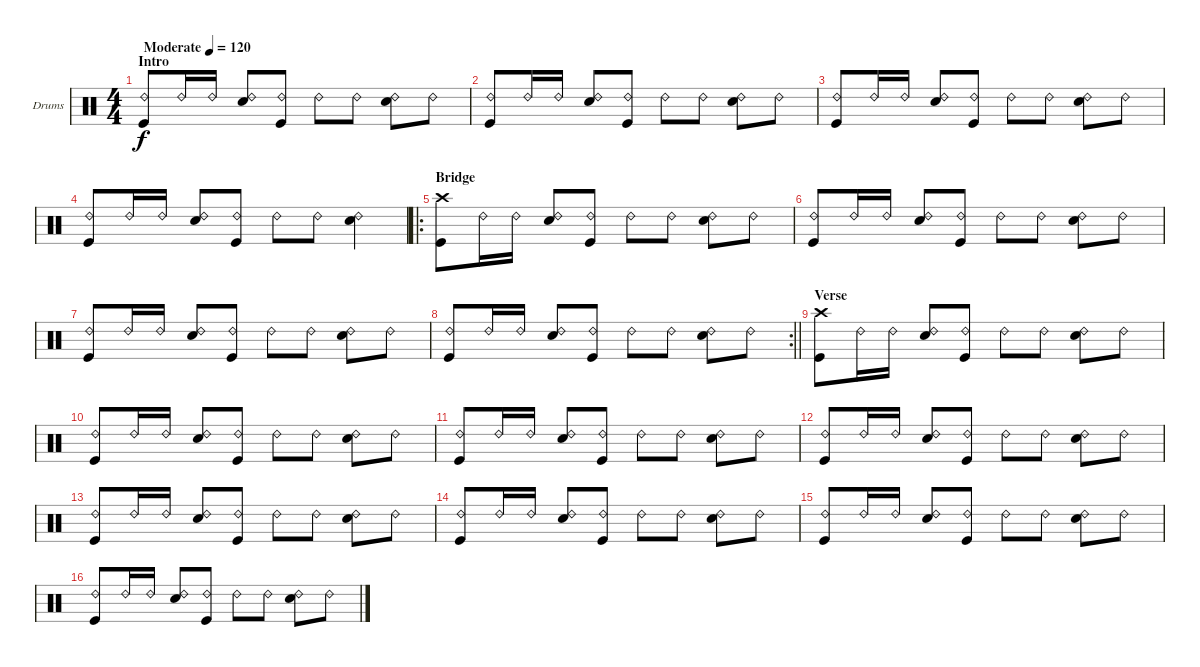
\bracketExtendMode groupsimilarinstruments
\firstSystemTrackNameOrientation horizontal
\otherSystemsTrackNameOrientation horizontal
\track ("Fabrizio" "Drums") {instrument percussion}
\staff {score}
\articulation defaults
\ts (4 4)
\beaming (8 2 2 2 2)
\section ("" "Intro")
\tempo (120 "Moderate")
\clef neutral
\ks c
("Ride (bell) 2" "Kick (hit)").8{dy f} "Ride (bell) 2".16 "Ride (bell) 2".16 ("Ride (bell) 2" "Snare (hit) 2").8 ("Ride (bell) 2" "Kick (hit)").8 "Ride (bell) 2".8 "Ride (bell) 2".8 ("Ride (bell) 2" "Snare (hit) 2").8 "Ride (bell) 2".8 |
("Ride (bell) 2" "Kick (hit)").8 "Ride (bell) 2".16 "Ride (bell) 2".16 ("Ride (bell) 2" "Snare (hit) 2").8 ("Ride (bell) 2" "Kick (hit)").8 "Ride (bell) 2".8 "Ride (bell) 2".8 ("Ride (bell) 2" "Snare (hit) 2").8 "Ride (bell) 2".8 |
("Ride (bell) 2" "Kick (hit)").8 "Ride (bell) 2".16 "Ride (bell) 2".16 ("Ride (bell) 2" "Snare (hit) 2").8 ("Ride (bell) 2" "Kick (hit)").8 "Ride (bell) 2".8 "Ride (bell) 2".8 ("Ride (bell) 2" "Snare (hit) 2").8 "Ride (bell) 2".8 |
("Ride (bell) 2" "Kick (hit)").8 "Ride (bell) 2".16 "Ride (bell) 2".16 ("Ride (bell) 2" "Snare (hit) 2").8 ("Ride (bell) 2" "Kick (hit)").8 "Ride (bell) 2".8 "Ride (bell) 2".8 ("Ride (bell) 2" "Snare (hit) 2").4 |
\ro
\section ("" "Bridge")
("Kick (hit)" "Crash high (hit)").8 "Ride (bell) 2".16 "Ride (bell) 2".16 ("Ride (bell) 2" "Snare (hit) 2").8 ("Ride (bell) 2" "Kick (hit)").8 "Ride (bell) 2".8 "Ride (bell) 2".8 ("Ride (bell) 2" "Snare (hit) 2").8 "Ride (bell) 2".8 |
("Ride (bell) 2" "Kick (hit)").8 "Ride (bell) 2".16 "Ride (bell) 2".16 ("Ride (bell) 2" "Snare (hit) 2").8 ("Ride (bell) 2" "Kick (hit)").8 "Ride (bell) 2".8 "Ride (bell) 2".8 ("Ride (bell) 2" "Snare (hit) 2").8 "Ride (bell) 2".8 |
("Ride (bell) 2" "Kick (hit)").8 "Ride (bell) 2".16 "Ride (bell) 2".16 ("Ride (bell) 2" "Snare (hit) 2").8 ("Ride (bell) 2" "Kick (hit)").8 "Ride (bell) 2".8 "Ride (bell) 2".8 ("Ride (bell) 2" "Snare (hit) 2").8 "Ride (bell) 2".8 |
\rc 2
\barLineRight lightlight
("Ride (bell) 2" "Kick (hit)").8 "Ride (bell) 2".16 "Ride (bell) 2".16 ("Ride (bell) 2" "Snare (hit) 2").8 ("Ride (bell) 2" "Kick (hit)").8 "Ride (bell) 2".8 "Ride (bell) 2".8 ("Ride (bell) 2" "Snare (hit) 2").8 "Ride (bell) 2".8 |
\section ("" "Verse")
("Kick (hit)" "Crash high (hit)").8 "Ride (bell) 2".16 "Ride (bell) 2".16 ("Ride (bell) 2" "Snare (hit) 2").8 ("Ride (bell) 2" "Kick (hit)").8 "Ride (bell) 2".8 "Ride (bell) 2".8 ("Ride (bell) 2" "Snare (hit) 2").8 "Ride (bell) 2".8 |
("Ride (bell) 2" "Kick (hit)").8 "Ride (bell) 2".16 "Ride (bell) 2".16 ("Ride (bell) 2" "Snare (hit) 2").8 ("Ride (bell) 2" "Kick (hit)").8 "Ride (bell) 2".8 "Ride (bell) 2".8 ("Ride (bell) 2" "Snare (hit) 2").8 "Ride (bell) 2".8 |
("Ride (bell) 2" "Kick (hit)").8 "Ride (bell) 2".16 "Ride (bell) 2".16 ("Ride (bell) 2" "Snare (hit) 2").8 ("Ride (bell) 2" "Kick (hit)").8 "Ride (bell) 2".8 "Ride (bell) 2".8 ("Ride (bell) 2" "Snare (hit) 2").8 "Ride (bell) 2".8 |
("Ride (bell) 2" "Kick (hit)").8 "Ride (bell) 2".16 "Ride (bell) 2".16 ("Ride (bell) 2" "Snare (hit) 2").8 ("Ride (bell) 2" "Kick (hit)").8 "Ride (bell) 2".8 "Ride (bell) 2".8 ("Ride (bell) 2" "Snare (hit) 2").8 "Ride (bell) 2".8 |
("Ride (bell) 2" "Kick (hit)").8 "Ride (bell) 2".16 "Ride (bell) 2".16 ("Ride (bell) 2" "Snare (hit) 2").8 ("Ride (bell) 2" "Kick (hit)").8 "Ride (bell) 2".8 "Ride (bell) 2".8 ("Ride (bell) 2" "Snare (hit) 2").8 "Ride (bell) 2".8 |
("Ride (bell) 2" "Kick (hit)").8 "Ride (bell) 2".16 "Ride (bell) 2".16 ("Ride (bell) 2" "Snare (hit) 2").8 ("Ride (bell) 2" "Kick (hit)").8 "Ride (bell) 2".8 "Ride (bell) 2".8 ("Ride (bell) 2" "Snare (hit) 2").8 "Ride (bell) 2".8 |
("Ride (bell) 2" "Kick (hit)").8 "Ride (bell) 2".16 "Ride (bell) 2".16 ("Ride (bell) 2" "Snare (hit) 2").8 ("Ride (bell) 2" "Kick (hit)").8 "Ride (bell) 2".8 "Ride (bell) 2".8 ("Ride (bell) 2" "Snare (hit) 2").8 "Ride (bell) 2".8 |
("Ride (bell) 2" "Kick (hit)").8 "Ride (bell) 2".16 "Ride (bell) 2".16 ("Ride (bell) 2" "Snare (hit) 2").8 ("Ride (bell) 2" "Kick (hit)").8 "Ride (bell) 2".8 "Ride (bell) 2".8 ("Ride (bell) 2" "Snare (hit) 2").8 "Ride (bell) 2".8
